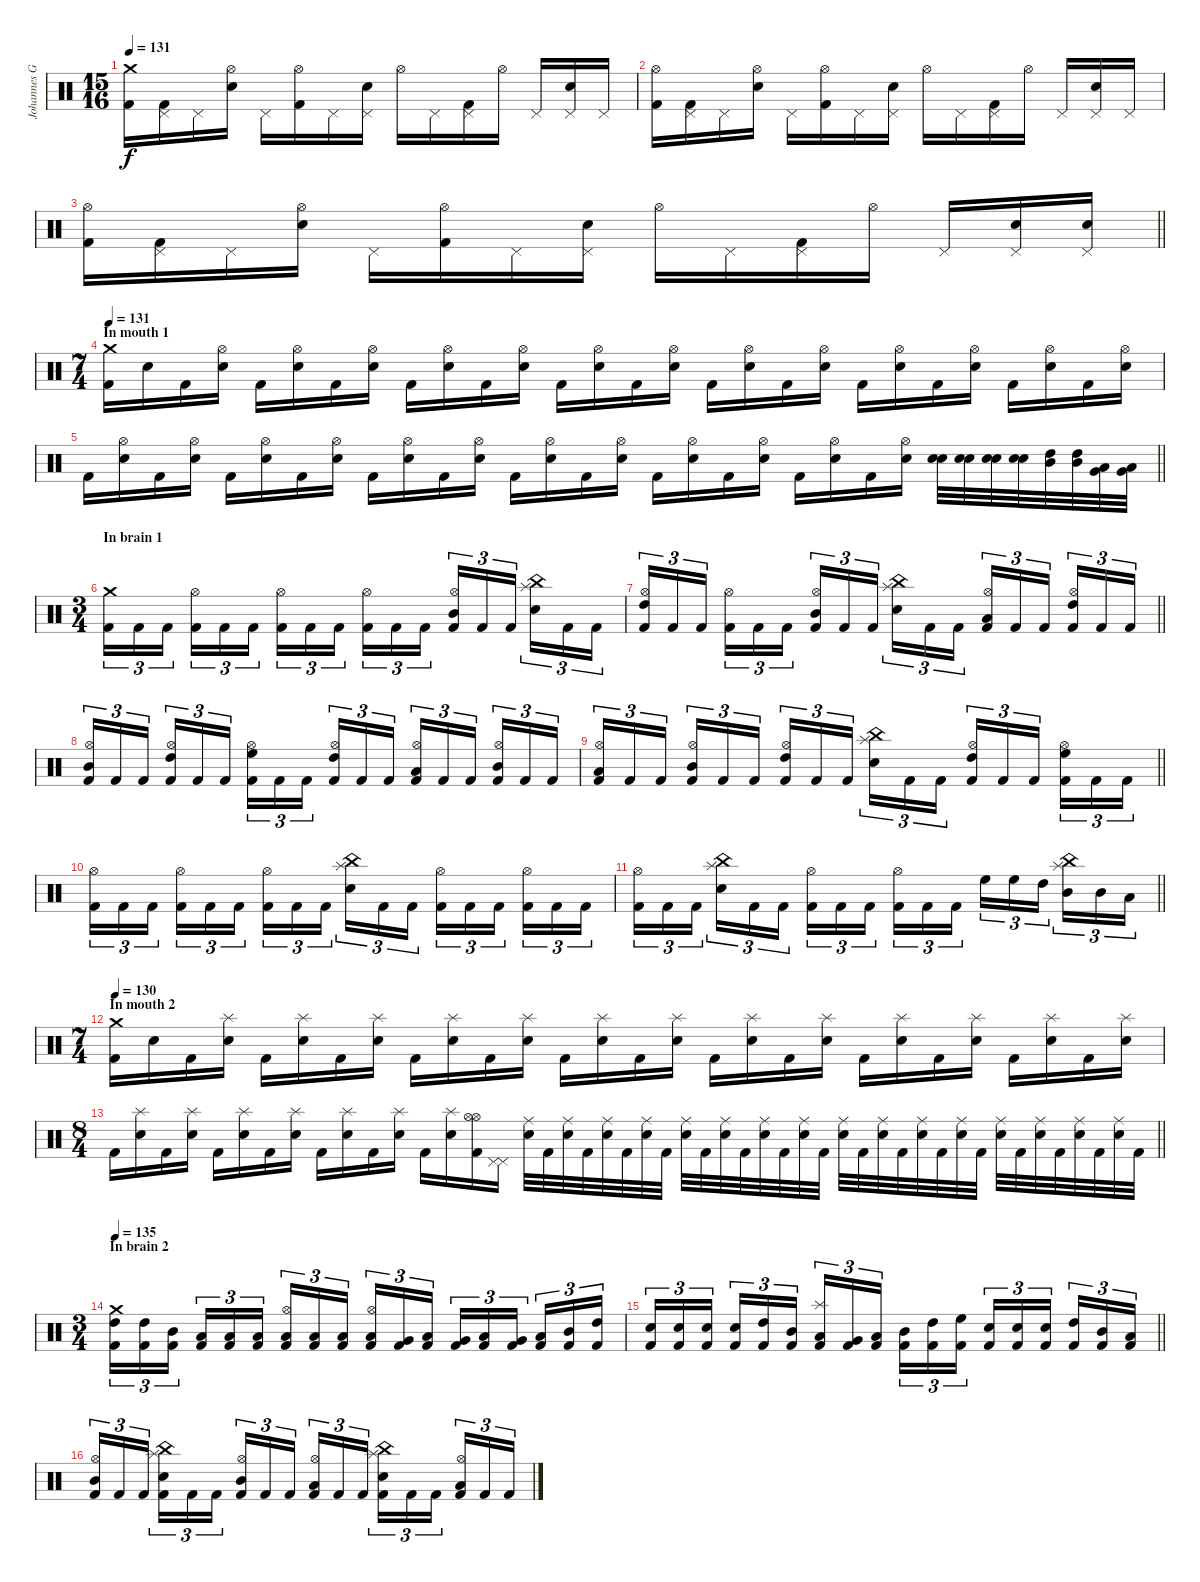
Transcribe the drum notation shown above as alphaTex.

\track ("Johannes Grossmann" "Johannes G") {instrument percussion}
\staff {score}
\articulation defaults
\ts (15 16)
\tempo 131
\clef neutral
\ks c
("Crash medium (hit)" "Kick (hit) 2").16{dy f} ("Pedal Hi-Hat (hit)" "Kick (hit) 2").16 "Pedal Hi-Hat (hit)".16 ("Hi-Hat (open)" "Snare (hit) 2").16 "Pedal Hi-Hat (hit)".16 ("Hi-Hat (open)" "Kick (hit) 2").16 "Pedal Hi-Hat (hit)".16 ("Pedal Hi-Hat (hit)" "Snare (hit) 2").16 "Hi-Hat (open)".16 "Pedal Hi-Hat (hit)".16 ("Pedal Hi-Hat (hit)" "Kick (hit) 2").16 "Hi-Hat (open)".16 "Pedal Hi-Hat (hit)".16 ("Pedal Hi-Hat (hit)" "Snare (hit) 2").16 "Pedal Hi-Hat (hit)".16 |
("Hi-Hat (open)" "Kick (hit) 2").16 ("Pedal Hi-Hat (hit)" "Kick (hit) 2").16 "Pedal Hi-Hat (hit)".16 ("Hi-Hat (open)" "Snare (hit) 2").16 "Pedal Hi-Hat (hit)".16 ("Hi-Hat (open)" "Kick (hit) 2").16 "Pedal Hi-Hat (hit)".16 ("Pedal Hi-Hat (hit)" "Snare (hit) 2").16 "Hi-Hat (open)".16 "Pedal Hi-Hat (hit)".16 ("Pedal Hi-Hat (hit)" "Kick (hit) 2").16 "Hi-Hat (open)".16 "Pedal Hi-Hat (hit)".16 ("Pedal Hi-Hat (hit)" "Snare (hit) 2").16 "Pedal Hi-Hat (hit)".16 |
\barLineRight lightlight
("Hi-Hat (open)" "Kick (hit) 2").16 ("Pedal Hi-Hat (hit)" "Kick (hit) 2").16 "Pedal Hi-Hat (hit)".16 ("Hi-Hat (open)" "Snare (hit) 2").16 "Pedal Hi-Hat (hit)".16 ("Hi-Hat (open)" "Kick (hit) 2").16 "Pedal Hi-Hat (hit)".16 ("Pedal Hi-Hat (hit)" "Snare (hit) 2").16 "Hi-Hat (open)".16 "Pedal Hi-Hat (hit)".16 ("Pedal Hi-Hat (hit)" "Kick (hit) 2").16 "Hi-Hat (open)".16 "Pedal Hi-Hat (hit)".16 ("Pedal Hi-Hat (hit)" "Snare (hit) 2").16 ("Pedal Hi-Hat (hit)" "Snare (hit) 2").16 |
\ts (7 4)
\section ("" "In mouth 1")
\tempo 131
("Crash medium (hit)" "Kick (hit) 2").16 "Snare (hit) 2".16 "Kick (hit) 2".16 ("Hi-Hat (open)" "Snare (hit) 2").16 "Kick (hit) 2".16 ("Hi-Hat (open)" "Snare (hit) 2").16 "Kick (hit) 2".16 ("Hi-Hat (open)" "Snare (hit) 2").16 "Kick (hit) 2".16 ("Hi-Hat (open)" "Snare (hit) 2").16 "Kick (hit) 2".16 ("Hi-Hat (open)" "Snare (hit) 2").16 "Kick (hit) 2".16 ("Hi-Hat (open)" "Snare (hit) 2").16 "Kick (hit) 2".16 ("Hi-Hat (open)" "Snare (hit) 2").16 "Kick (hit) 2".16 ("Hi-Hat (open)" "Snare (hit) 2").16 "Kick (hit) 2".16 ("Hi-Hat (open)" "Snare (hit) 2").16 "Kick (hit) 2".16 ("Hi-Hat (open)" "Snare (hit) 2").16 "Kick (hit) 2".16 ("Hi-Hat (open)" "Snare (hit) 2").16 "Kick (hit) 2".16 ("Hi-Hat (open)" "Snare (hit) 2").16 "Kick (hit) 2".16 ("Hi-Hat (open)" "Snare (hit) 2").16 |
\barLineRight lightlight "Kick (hit) 2".16
("Hi-Hat (open)" "Snare (hit) 2").16 "Kick (hit) 2".16 ("Hi-Hat (open)" "Snare (hit) 2").16 "Kick (hit) 2".16 ("Hi-Hat (open)" "Snare (hit) 2").16 "Kick (hit) 2".16 ("Hi-Hat (open)" "Snare (hit) 2").16 "Kick (hit) 2".16 ("Hi-Hat (open)" "Snare (hit) 2").16 "Kick (hit) 2".16 ("Hi-Hat (open)" "Snare (hit) 2").16 "Kick (hit) 2".16 ("Hi-Hat (open)" "Snare (hit) 2").16 "Kick (hit) 2".16 ("Hi-Hat (open)" "Snare (hit) 2").16 "Kick (hit) 2".16 ("Hi-Hat (open)" "Snare (hit) 2").16 "Kick (hit) 2".16 ("Hi-Hat (open)" "Snare (hit) 2").16 "Kick (hit) 2".16 ("Hi-Hat (open)" "Snare (hit) 2").16 "Kick (hit) 2".16 ("Hi-Hat (open)" "Snare (hit) 2").16 ("Electric Snare (hit)" "Snare (hit) 2").32 ("Electric Snare (hit)" "Snare (hit) 2").32 ("Electric Snare (hit)" "Snare (hit) 2").32 ("Electric Snare (hit)" "Snare (hit) 2").32 ("Mid Tom (hit)" "High Tom (hit)").32 ("Mid Tom (hit)" "High Tom (hit)").32 ("Very Low Tom (hit)" "Low Tom (hit)").32 ("Very Low Tom (hit)" "Low Tom (hit)").32 |
\ts (3 4)
\section ("" "In brain 1")
("Crash medium (hit)" "Kick (hit) 2").16{tu (3 2)} "Kick (hit) 2".16{tu (3 2)} "Kick (hit) 2".16{tu (3 2) beam splitsecondary} ("Hi-Hat (open)" "Kick (hit) 2").16{tu (3 2)} "Kick (hit) 2".16{tu (3 2)} "Kick (hit) 2".16{tu (3 2)} ("Hi-Hat (open)" "Kick (hit) 2").16{tu (3 2)} "Kick (hit) 2".16{tu (3 2)} "Kick (hit) 2".16{tu (3 2) beam splitsecondary} ("Hi-Hat (open)" "Kick (hit) 2").16{tu (3 2)} "Kick (hit) 2".16{tu (3 2)} "Kick (hit) 2".16{tu (3 2)} ("Hi-Hat (open)" "Mid Tom (hit)" "Kick (hit) 2").16{tu (3 2)} "Kick (hit) 2".16{tu (3 2)} "Kick (hit) 2".16{tu (3 2) beam splitsecondary} ("China (hit)" "Splash (hit)" "Snare (hit) 2").16{tu (3 2)} "Kick (hit) 2".16{tu (3 2)} "Kick (hit) 2".16{tu (3 2)} |
\barLineRight lightlight
("Hi-Hat (open)" "High Tom (hit)" "Kick (hit) 2").16{tu (3 2)} "Kick (hit) 2".16{tu (3 2)} "Kick (hit) 2".16{tu (3 2) beam splitsecondary} ("Hi-Hat (open)" "Kick (hit) 2").16{tu (3 2)} "Kick (hit) 2".16{tu (3 2)} "Kick (hit) 2".16{tu (3 2)} ("Hi-Hat (open)" "Mid Tom (hit)" "Kick (hit) 2").16{tu (3 2)} "Kick (hit) 2".16{tu (3 2)} "Kick (hit) 2".16{tu (3 2) beam splitsecondary} ("China (hit)" "Splash (hit)" "Snare (hit) 2").16{tu (3 2)} "Kick (hit) 2".16{tu (3 2)} "Kick (hit) 2".16{tu (3 2)} ("Hi-Hat (open)" "Low Tom (hit)" "Kick (hit) 2").16{tu (3 2)} "Kick (hit) 2".16{tu (3 2)} "Kick (hit) 2".16{tu (3 2) beam splitsecondary} ("Hi-Hat (open)" "High Tom (hit)" "Kick (hit) 2").16{tu (3 2)} "Kick (hit) 2".16{tu (3 2)} "Kick (hit) 2".16{tu (3 2)} |
("Hi-Hat (open)" "Mid Tom (hit)" "Kick (hit) 2").16{tu (3 2)} "Kick (hit) 2".16{tu (3 2)} "Kick (hit) 2".16{tu (3 2) beam splitsecondary} ("Hi-Hat (open)" "High Tom (hit)" "Kick (hit) 2").16{tu (3 2)} "Kick (hit) 2".16{tu (3 2)} "Kick (hit) 2".16{tu (3 2)} ("Hi-Hat (open)" "High Floor Tom (hit)" "Kick (hit) 2").16{tu (3 2)} "Kick (hit) 2".16{tu (3 2)} "Kick (hit) 2".16{tu (3 2) beam splitsecondary} ("Hi-Hat (open)" "High Tom (hit)" "Kick (hit) 2").16{tu (3 2)} "Kick (hit) 2".16{tu (3 2)} "Kick (hit) 2".16{tu (3 2)} ("Hi-Hat (open)" "Low Tom (hit)" "Kick (hit) 2").16{tu (3 2)} "Kick (hit) 2".16{tu (3 2)} "Kick (hit) 2".16{tu (3 2) beam splitsecondary} ("Hi-Hat (open)" "Mid Tom (hit)" "Kick (hit) 2").16{tu (3 2)} "Kick (hit) 2".16{tu (3 2)} "Kick (hit) 2".16{tu (3 2)} |
\barLineRight lightlight
("Hi-Hat (open)" "Low Tom (hit)" "Kick (hit) 2").16{tu (3 2)} "Kick (hit) 2".16{tu (3 2)} "Kick (hit) 2".16{tu (3 2) beam splitsecondary} ("Hi-Hat (open)" "Mid Tom (hit)" "Kick (hit) 2").16{tu (3 2)} "Kick (hit) 2".16{tu (3 2)} "Kick (hit) 2".16{tu (3 2)} ("Hi-Hat (open)" "High Tom (hit)" "Kick (hit) 2").16{tu (3 2)} "Kick (hit) 2".16{tu (3 2)} "Kick (hit) 2".16{tu (3 2) beam splitsecondary} ("Splash (hit)" "China (hit)" "Snare (hit) 2").16{tu (3 2)} "Kick (hit) 2".16{tu (3 2)} "Kick (hit) 2".16{tu (3 2)} ("Hi-Hat (open)" "High Tom (hit)" "Kick (hit) 2").16{tu (3 2)} "Kick (hit) 2".16{tu (3 2)} "Kick (hit) 2".16{tu (3 2) beam splitsecondary} ("Hi-Hat (open)" "High Floor Tom (hit)" "Kick (hit) 2").16{tu (3 2)} "Kick (hit) 2".16{tu (3 2)} "Kick (hit) 2".16{tu (3 2)} |
("Hi-Hat (open)" "Kick (hit) 2").16{tu (3 2)} "Kick (hit) 2".16{tu (3 2)} "Kick (hit) 2".16{tu (3 2) beam splitsecondary} ("Hi-Hat (open)" "Kick (hit) 2").16{tu (3 2)} "Kick (hit) 2".16{tu (3 2)} "Kick (hit) 2".16{tu (3 2)} ("Hi-Hat (open)" "Kick (hit) 2").16{tu (3 2)} "Kick (hit) 2".16{tu (3 2)} "Kick (hit) 2".16{tu (3 2) beam splitsecondary} ("China (hit)" "Splash (hit)" "Snare (hit) 2").16{tu (3 2)} "Kick (hit) 2".16{tu (3 2)} "Kick (hit) 2".16{tu (3 2)} ("Hi-Hat (open)" "Kick (hit) 2").16{tu (3 2)} "Kick (hit) 2".16{tu (3 2)} "Kick (hit) 2".16{tu (3 2) beam splitsecondary} ("Hi-Hat (open)" "Kick (hit) 2").16{tu (3 2)} "Kick (hit) 2".16{tu (3 2)} "Kick (hit) 2".16{tu (3 2)} |
\barLineRight lightlight
("Hi-Hat (open)" "Kick (hit) 2").16{tu (3 2)} "Kick (hit) 2".16{tu (3 2)} "Kick (hit) 2".16{tu (3 2) beam splitsecondary} ("Splash (hit)" "China (hit)" "Snare (hit) 2").16{tu (3 2)} "Kick (hit) 2".16{tu (3 2)} "Kick (hit) 2".16{tu (3 2)} ("Hi-Hat (open)" "Kick (hit) 2").16{tu (3 2)} "Kick (hit) 2".16{tu (3 2)} "Kick (hit) 2".16{tu (3 2) beam splitsecondary} ("Hi-Hat (open)" "Kick (hit) 2").16{tu (3 2)} "Kick (hit) 2".16{tu (3 2)} "Kick (hit) 2".16{tu (3 2)} "High Floor Tom (hit)".16{tu (3 2)} "High Floor Tom (hit)".16{tu (3 2)} "High Tom (hit)".16{tu (3 2) beam splitsecondary} ("China (hit)" "Splash (hit)" "Mid Tom (hit)").16{tu (3 2)} "Mid Tom (hit)".16{tu (3 2)} "Low Floor Tom (hit)".16{tu (3 2)} |
\ts (7 4)
\section ("" "In mouth 2")
\tempo 130
("Crash medium (hit)" "Kick (hit) 2").16 "Snare (hit) 2".16 "Kick (hit) 2".16 ("Splash (hit)" "Snare (hit) 2").16 "Kick (hit) 2".16 ("Splash (hit)" "Snare (hit) 2").16 "Kick (hit) 2".16 ("Splash (hit)" "Snare (hit) 2").16 "Kick (hit) 2".16 ("Splash (hit)" "Snare (hit) 2").16 "Kick (hit) 2".16 ("Splash (hit)" "Snare (hit) 2").16 "Kick (hit) 2".16 ("Splash (hit)" "Snare (hit) 2").16 "Kick (hit) 2".16 ("Splash (hit)" "Snare (hit) 2").16 "Kick (hit) 2".16 ("Splash (hit)" "Snare (hit) 2").16 "Kick (hit) 2".16 ("Splash (hit)" "Snare (hit) 2").16 "Kick (hit) 2".16 ("Splash (hit)" "Snare (hit) 2").16 "Kick (hit) 2".16 ("Splash (hit)" "Snare (hit) 2").16 "Kick (hit) 2".16 ("Splash (hit)" "Snare (hit) 2").16 "Kick (hit) 2".16 ("Splash (hit)" "Snare (hit) 2").16 |
\ts (8 4)
\barLineRight lightlight "Kick (hit) 2".16
("Splash (hit)" "Snare (hit) 2").16 "Kick (hit) 2".16 ("Splash (hit)" "Snare (hit) 2").16 "Kick (hit) 2".16 ("Splash (hit)" "Snare (hit) 2").16 "Kick (hit) 2".16 ("Splash (hit)" "Snare (hit) 2").16 "Kick (hit) 2".16 ("Splash (hit)" "Snare (hit) 2").16 "Kick (hit) 2".16 ("Splash (hit)" "Snare (hit) 2").16 "Kick (hit) 2".16 ("Splash (hit)" "Snare (hit) 2").16 ("Hi-Hat (open)" "Hi-Hat (open)" "Kick (hit) 2").16 ("Pedal Hi-Hat (hit)" "Pedal Hi-Hat (hit)").16 ("Ride (middle)" "Snare (hit) 2").32 "Kick (hit) 2".32 ("Ride (middle)" "Snare (hit) 2").32 "Kick (hit) 2".32 ("Ride (middle)" "Snare (hit) 2").32 "Kick (hit) 2".32 ("Ride (middle)" "Snare (hit) 2").32 "Kick (hit) 2".32 ("Ride (middle)" "Snare (hit) 2").32 "Kick (hit) 2".32 ("Ride (middle)" "Snare (hit) 2").32 "Kick (hit) 2".32 ("Ride (middle)" "Snare (hit) 2").32 "Kick (hit) 2".32 ("Ride (middle)" "Snare (hit) 2").32 "Kick (hit) 2".32 ("Ride (middle)" "Snare (hit) 2").32 "Kick (hit) 2".32 ("Ride (middle)" "Snare (hit) 2").32 "Kick (hit) 2".32 ("Ride (middle)" "Snare (hit) 2").32 "Kick (hit) 2".32 ("Ride (middle)" "Snare (hit) 2").32 "Kick (hit) 2".32 ("Ride (middle)" "Snare (hit) 2").32 "Kick (hit) 2".32 ("Ride (middle)" "Snare (hit) 2").32 "Kick (hit) 2".32 ("Ride (middle)" "Snare (hit) 2").32 "Kick (hit) 2".32 ("Ride (middle)" "Snare (hit) 2").32 "Kick (hit) 2".32 |
\ts (3 4)
\section ("" "In brain 2")
\tempo 135
("Crash medium (hit)" "High Tom (hit)" "Kick (hit) 2").16{tu (3 2)} ("High Tom (hit)" "Kick (hit) 2").16{tu (3 2)} ("Mid Tom (hit)" "Kick (hit) 2").16{tu (3 2) beam splitsecondary} ("Low Tom (hit)" "Kick (hit) 2").16{tu (3 2)} ("Low Tom (hit)" "Kick (hit) 2").16{tu (3 2)} ("Low Tom (hit)" "Kick (hit) 2").16{tu (3 2)} ("Hi-Hat (open)" "Low Floor Tom (hit)" "Kick (hit) 2").16{tu (3 2)} ("Low Floor Tom (hit)" "Kick (hit) 2").16{tu (3 2)} ("Low Floor Tom (hit)" "Kick (hit) 2").16{tu (3 2) beam splitsecondary} ("Hi-Hat (open)" "Low Floor Tom (hit)" "Kick (hit) 2").16{tu (3 2)} ("Very Low Tom (hit)" "Kick (hit) 2").16{tu (3 2)} ("Low Tom (hit)" "Kick (hit) 2").16{tu (3 2)} ("Very Low Tom (hit)" "Kick (hit) 2").16{tu (3 2)} ("Low Tom (hit)" "Kick (hit) 2").16{tu (3 2)} ("Very Low Tom (hit)" "Kick (hit) 2").16{tu (3 2) beam splitsecondary} ("Low Tom (hit)" "Kick (hit) 2").16{tu (3 2)} ("Mid Tom (hit)" "Kick (hit) 2").16{tu (3 2)} ("High Tom (hit)" "Kick (hit) 2").16{tu (3 2)} |
\barLineRight lightlight
("Snare (hit) 2" "Kick (hit) 2").16{tu (3 2)} ("Snare (hit) 2" "Kick (hit) 2").16{tu (3 2)} ("Snare (hit) 2" "Kick (hit) 2").16{tu (3 2) beam splitsecondary} ("Snare (hit) 2" "Kick (hit) 2").16{tu (3 2)} ("High Tom (hit)" "Kick (hit) 2").16{tu (3 2)} ("Mid Tom (hit)" "Kick (hit) 2").16{tu (3 2)} ("Splash (hit)" "Low Floor Tom (hit)" "Kick (hit) 2").16{tu (3 2)} ("Very Low Tom (hit)" "Kick (hit) 2").16{tu (3 2)} ("Low Tom (hit)" "Kick (hit) 2").16{tu (3 2) beam splitsecondary} ("Mid Tom (hit)" "Kick (hit) 2").16{tu (3 2)} ("High Tom (hit)" "Kick (hit) 2").16{tu (3 2)} ("High Floor Tom (hit)" "Kick (hit) 2").16{tu (3 2)} ("Snare (hit) 2" "Kick (hit) 2").16{tu (3 2)} ("Snare (hit) 2" "Kick (hit) 2").16{tu (3 2)} ("Snare (hit) 2" "Kick (hit) 2").16{tu (3 2) beam splitsecondary} ("High Tom (hit)" "Kick (hit) 2").16{tu (3 2)} ("Mid Tom (hit)" "Kick (hit) 2").16{tu (3 2)} ("Low Tom (hit)" "Kick (hit) 2").16{tu (3 2)} |
("Hi-Hat (open)" "Mid Tom (hit)" "Kick (hit) 2").16{tu (3 2)} "Kick (hit) 2".16{tu (3 2)} "Kick (hit) 2".16{tu (3 2) beam splitsecondary} ("China (hit)" "Splash (hit)" "Snare (hit) 2" "Kick (hit) 2").16{tu (3 2)} "Kick (hit) 2".16{tu (3 2)} "Kick (hit) 2".16{tu (3 2)} ("Hi-Hat (open)" "Mid Tom (hit)" "Kick (hit) 2").16{tu (3 2)} "Kick (hit) 2".16{tu (3 2)} "Kick (hit) 2".16{tu (3 2) beam splitsecondary} ("Hi-Hat (open)" "Low Tom (hit)" "Kick (hit) 2").16{tu (3 2)} "Kick (hit) 2".16{tu (3 2)} "Kick (hit) 2".16{tu (3 2)} ("China (hit)" "Splash (hit)" "Snare (hit) 2" "Kick (hit) 2").16{tu (3 2)} "Kick (hit) 2".16{tu (3 2)} "Kick (hit) 2".16{tu (3 2) beam splitsecondary} ("Hi-Hat (open)" "Low Tom (hit)" "Kick (hit) 2").16{tu (3 2)} "Kick (hit) 2".16{tu (3 2)} "Kick (hit) 2".16{tu (3 2)}
